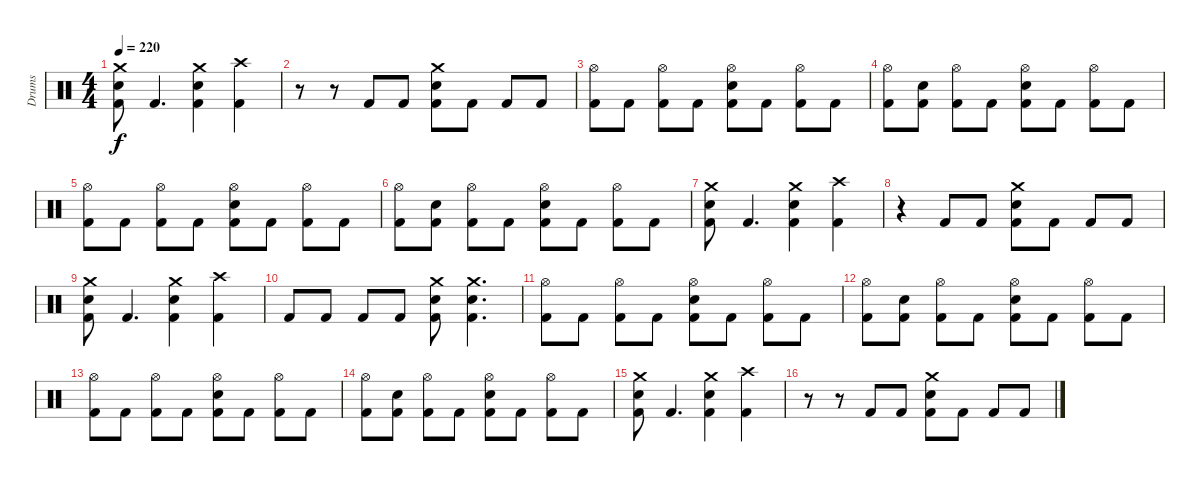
\track ("Drums" "Drums") {instrument percussion}
\staff {score}
\articulation defaults
\ts (4 4)
\tempo 220
\clef neutral
\ks c
("Crash medium (hit)" "Snare (hit) 2" "Kick (hit) 2").8{dy f} "Kick (hit) 2".4{d} ("Crash medium (hit)" "Snare (hit) 2" "Kick (hit) 2").4 ("Crash high (hit)" "Kick (hit) 2").4 |
r.8 r.8 "Kick (hit) 2".8 "Kick (hit) 2".8 ("Crash medium (hit)" "Snare (hit) 2" "Kick (hit) 2").8 "Kick (hit) 2".8 "Kick (hit) 2".8 "Kick (hit) 2".8 |
("Hi-Hat (open)" "Kick (hit) 2").8 "Kick (hit) 2".8 ("Hi-Hat (open)" "Kick (hit) 2").8 "Kick (hit) 2".8 ("Hi-Hat (open)" "Snare (hit) 2" "Kick (hit) 2").8 "Kick (hit) 2".8 ("Hi-Hat (open)" "Kick (hit) 2").8 "Kick (hit) 2".8 |
("Hi-Hat (open)" "Kick (hit) 2").8 ("Snare (hit) 2" "Kick (hit) 2").8 ("Hi-Hat (open)" "Kick (hit) 2").8 "Kick (hit) 2".8 ("Hi-Hat (open)" "Snare (hit) 2" "Kick (hit) 2").8 "Kick (hit) 2".8 ("Hi-Hat (open)" "Kick (hit) 2").8 "Kick (hit) 2".8 |
("Hi-Hat (open)" "Kick (hit) 2").8 "Kick (hit) 2".8 ("Hi-Hat (open)" "Kick (hit) 2").8 "Kick (hit) 2".8 ("Hi-Hat (open)" "Snare (hit) 2" "Kick (hit) 2").8 "Kick (hit) 2".8 ("Hi-Hat (open)" "Kick (hit) 2").8 "Kick (hit) 2".8 |
("Hi-Hat (open)" "Kick (hit) 2").8 ("Snare (hit) 2" "Kick (hit) 2").8 ("Hi-Hat (open)" "Kick (hit) 2").8 "Kick (hit) 2".8 ("Hi-Hat (open)" "Snare (hit) 2" "Kick (hit) 2").8 "Kick (hit) 2".8 ("Hi-Hat (open)" "Kick (hit) 2").8 "Kick (hit) 2".8 |
("Crash medium (hit)" "Snare (hit) 2" "Kick (hit) 2").8 "Kick (hit) 2".4{d} ("Crash medium (hit)" "Snare (hit) 2" "Kick (hit) 2").4 ("Crash high (hit)" "Kick (hit) 2").4 |
r.4 "Kick (hit) 2".8 "Kick (hit) 2".8 ("Crash medium (hit)" "Snare (hit) 2" "Kick (hit) 2").8 "Kick (hit) 2".8 "Kick (hit) 2".8 "Kick (hit) 2".8 |
("Crash medium (hit)" "Snare (hit) 2" "Kick (hit) 2").8 "Kick (hit) 2".4{d} ("Crash medium (hit)" "Snare (hit) 2" "Kick (hit) 2").4 ("Crash high (hit)" "Kick (hit) 2").4 |
"Kick (hit) 2".8 "Kick (hit) 2".8 "Kick (hit) 2".8 "Kick (hit) 2".8 ("Crash medium (hit)" "Snare (hit) 2" "Kick (hit) 2").8 ("Crash medium (hit)" "Snare (hit) 2" "Kick (hit) 2").4{d} |
("Hi-Hat (open)" "Kick (hit) 2").8 "Kick (hit) 2".8 ("Hi-Hat (open)" "Kick (hit) 2").8 "Kick (hit) 2".8 ("Hi-Hat (open)" "Snare (hit) 2" "Kick (hit) 2").8 "Kick (hit) 2".8 ("Hi-Hat (open)" "Kick (hit) 2").8 "Kick (hit) 2".8 |
("Hi-Hat (open)" "Kick (hit) 2").8 ("Snare (hit) 2" "Kick (hit) 2").8 ("Hi-Hat (open)" "Kick (hit) 2").8 "Kick (hit) 2".8 ("Hi-Hat (open)" "Snare (hit) 2" "Kick (hit) 2").8 "Kick (hit) 2".8 ("Hi-Hat (open)" "Kick (hit) 2").8 "Kick (hit) 2".8 |
("Hi-Hat (open)" "Kick (hit) 2").8 "Kick (hit) 2".8 ("Hi-Hat (open)" "Kick (hit) 2").8 "Kick (hit) 2".8 ("Hi-Hat (open)" "Snare (hit) 2" "Kick (hit) 2").8 "Kick (hit) 2".8 ("Hi-Hat (open)" "Kick (hit) 2").8 "Kick (hit) 2".8 |
("Hi-Hat (open)" "Kick (hit) 2").8 ("Snare (hit) 2" "Kick (hit) 2").8 ("Hi-Hat (open)" "Kick (hit) 2").8 "Kick (hit) 2".8 ("Hi-Hat (open)" "Snare (hit) 2" "Kick (hit) 2").8 "Kick (hit) 2".8 ("Hi-Hat (open)" "Kick (hit) 2").8 "Kick (hit) 2".8 |
("Crash medium (hit)" "Snare (hit) 2" "Kick (hit) 2").8 "Kick (hit) 2".4{d} ("Crash medium (hit)" "Snare (hit) 2" "Kick (hit) 2").4 ("Crash high (hit)" "Kick (hit) 2").4 |
r.8 r.8 "Kick (hit) 2".8 "Kick (hit) 2".8 ("Crash medium (hit)" "Snare (hit) 2" "Kick (hit) 2").8 "Kick (hit) 2".8 "Kick (hit) 2".8 "Kick (hit) 2".8
